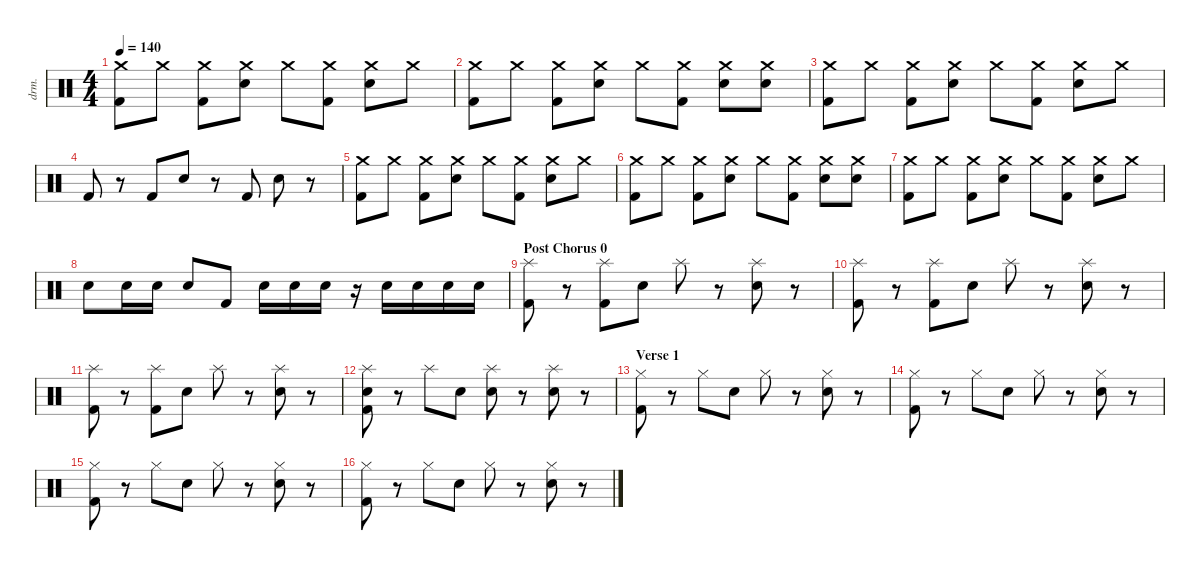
\defaultSystemsLayout 4
\hideDynamics
\bracketExtendMode nobrackets
\otherSystemsTrackNameOrientation horizontal
\track ("Drumkit" "drm.") {instrument percussion}
\staff {score}
\articulation defaults
\ts (4 4)
\tempo 140
\clef neutral
\ks c
("Crash medium (hit)" "Kick (hit) 2").8{dy mf beam Down} "Crash medium (hit)".8{beam Down} ("Crash medium (hit)" "Kick (hit) 2").8{beam Down} ("Snare (hit) 2" "Crash medium (hit)").8{beam Down} "Crash medium (hit)".8{beam Down} ("Crash medium (hit)" "Kick (hit) 2").8{beam Down} ("Crash medium (hit)" "Snare (hit) 2").8{beam Down} "Crash medium (hit)".8{beam Down} |
("Crash medium (hit)" "Kick (hit) 2").8{beam Down} "Crash medium (hit)".8{beam Down} ("Crash medium (hit)" "Kick (hit) 2").8{beam Down} ("Snare (hit) 2" "Crash medium (hit)").8{beam Down} "Crash medium (hit)".8{beam Down} ("Crash medium (hit)" "Kick (hit) 2").8{beam Down} ("Crash medium (hit)" "Snare (hit) 2").8{beam Down} ("Crash medium (hit)" "Snare (hit) 2").8{beam Down} |
("Crash medium (hit)" "Kick (hit) 2").8{beam Down} "Crash medium (hit)".8{beam Down} ("Crash medium (hit)" "Kick (hit) 2").8{beam Down} ("Snare (hit) 2" "Crash medium (hit)").8{beam Down} "Crash medium (hit)".8{beam Down} ("Crash medium (hit)" "Kick (hit) 2").8{beam Down} ("Crash medium (hit)" "Snare (hit) 2").8{beam Down} "Crash medium (hit)".8{beam Down} |
"Kick (hit) 2".8{beam Up} r.8{beam Up} "Kick (hit) 2".8{beam Up} "Snare (hit) 2".8{beam Up} r.8{beam Up} "Kick (hit) 2".8{beam Up} "Snare (hit) 2".8{beam Down} r.8{beam Down} |
("Crash medium (hit)" "Kick (hit) 2").8{beam Down} "Crash medium (hit)".8{beam Down} ("Crash medium (hit)" "Kick (hit) 2").8{beam Down} ("Snare (hit) 2" "Crash medium (hit)").8{beam Down} "Crash medium (hit)".8{beam Down} ("Crash medium (hit)" "Kick (hit) 2").8{beam Down} ("Crash medium (hit)" "Snare (hit) 2").8{beam Down} "Crash medium (hit)".8{beam Down} |
("Crash medium (hit)" "Kick (hit) 2").8{beam Down} "Crash medium (hit)".8{beam Down} ("Crash medium (hit)" "Kick (hit) 2").8{beam Down} ("Snare (hit) 2" "Crash medium (hit)").8{beam Down} "Crash medium (hit)".8{beam Down} ("Crash medium (hit)" "Kick (hit) 2").8{beam Down} ("Crash medium (hit)" "Snare (hit) 2").8{beam Down} ("Crash medium (hit)" "Snare (hit) 2").8{beam Down} |
("Crash medium (hit)" "Kick (hit) 2").8{beam Down} "Crash medium (hit)".8{beam Down} ("Crash medium (hit)" "Kick (hit) 2").8{beam Down} ("Snare (hit) 2" "Crash medium (hit)").8{beam Down} "Crash medium (hit)".8{beam Down} ("Crash medium (hit)" "Kick (hit) 2").8{beam Down} ("Crash medium (hit)" "Snare (hit) 2").8{beam Down} "Crash medium (hit)".8{beam Down} |
"Snare (hit) 2".8{beam Down} "Snare (hit) 2".16{beam Down} "Snare (hit) 2".16{beam Down} "Snare (hit) 2".8{beam Up} "Kick (hit) 2".8{beam Up} "Snare (hit) 2".16{beam Down} "Snare (hit) 2".16{beam Down} "Snare (hit) 2".16{beam Down} r.16{beam Down} "Snare (hit) 2".16{beam Down} "Snare (hit) 2".16{beam Down} "Snare (hit) 2".16{beam Down} "Snare (hit) 2".16{beam Down} |
\section ("" "Post Chorus 0")
("Kick (hit) 2" "Splash (hit)").8{beam Down} r.8{beam Down} ("Kick (hit) 2" "Splash (hit)").8{beam Down} "Snare (hit) 2".8{beam Down} "Splash (hit)".8{beam Down} r.8{beam Down} ("Snare (hit) 2" "Splash (hit)").8{beam Down} r.8{beam Down} |
("Kick (hit) 2" "Splash (hit)").8{beam Down} r.8{beam Down} ("Kick (hit) 2" "Splash (hit)").8{beam Down} "Snare (hit) 2".8{beam Down} "Splash (hit)".8{beam Down} r.8{beam Down} ("Snare (hit) 2" "Splash (hit)").8{beam Down} r.8{beam Down} |
("Kick (hit) 2" "Splash (hit)").8{beam Down} r.8{beam Down} ("Kick (hit) 2" "Splash (hit)").8{beam Down} "Snare (hit) 2".8{beam Down} "Splash (hit)".8{beam Down} r.8{beam Down} ("Snare (hit) 2" "Splash (hit)").8{beam Down} r.8{beam Down} |
("Splash (hit)" "Snare (hit) 2" "Kick (hit) 2").8{beam Down} r.8{beam Down} "Splash (hit)".8{beam Down} "Snare (hit) 2".8{beam Down} ("Splash (hit)" "Snare (hit) 2").8{beam Down} r.8{beam Down} ("Snare (hit) 2" "Splash (hit)").8{beam Down} r.8{beam Down} |
\section ("" "Verse 1")
("Kick (hit) 2" "Hi-Hat (closed)").8{beam Down} r.8{beam Down} "Hi-Hat (closed)".8{beam Down} "Snare (hit) 2".8{beam Down} "Hi-Hat (closed)".8{beam Down} r.8{beam Down} ("Snare (hit) 2" "Hi-Hat (closed)").8{beam Down} r.8{beam Down} |
("Kick (hit) 2" "Hi-Hat (closed)").8{beam Down} r.8{beam Down} "Hi-Hat (closed)".8{beam Down} "Snare (hit) 2".8{beam Down} "Hi-Hat (closed)".8{beam Down} r.8{beam Down} ("Snare (hit) 2" "Hi-Hat (closed)").8{beam Down} r.8{beam Down} |
("Kick (hit) 2" "Hi-Hat (closed)").8{beam Down} r.8{beam Down} "Hi-Hat (closed)".8{beam Down} "Snare (hit) 2".8{beam Down} "Hi-Hat (closed)".8{beam Down} r.8{beam Down} ("Snare (hit) 2" "Hi-Hat (closed)").8{beam Down} r.8{beam Down} |
("Kick (hit) 2" "Hi-Hat (closed)").8{beam Down} r.8{beam Down} "Hi-Hat (closed)".8{beam Down} "Snare (hit) 2".8{beam Down} "Hi-Hat (closed)".8{beam Down} r.8{beam Down} ("Snare (hit) 2" "Hi-Hat (closed)").8{beam Down} r.8{beam Down}
